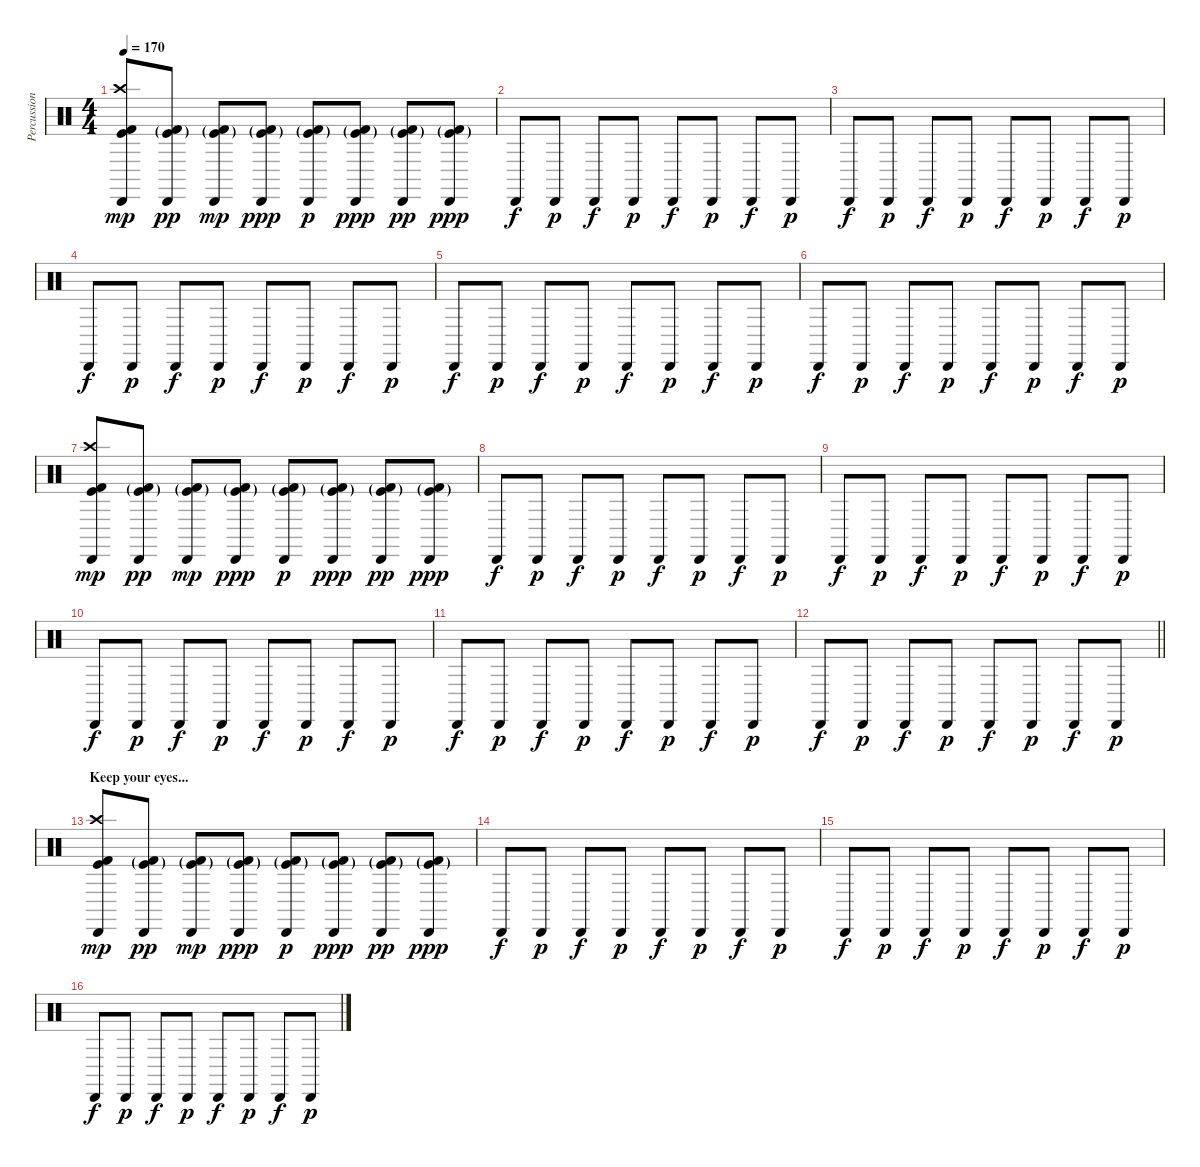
\track ("Percussion" "Percussion") {instrument percussion}
\staff {score}
\articulation defaults
\ts (4 4)
\tempo 170
\clef neutral
\ks c
("Cabasa (hit)" "Kick (hit)" "Kick (hit) 2" "Crash high (hit)").8{dy mp} ("Cabasa (hit)" "Kick (hit)"{g} "Kick (hit) 2"{g}).8{dy pp} ("Cabasa (hit)" "Kick (hit)"{g} "Kick (hit) 2"{g}).8{dy mp} ("Cabasa (hit)" "Kick (hit)"{g} "Kick (hit) 2"{g}).8{dy ppp} ("Cabasa (hit)" "Kick (hit)"{g} "Kick (hit) 2"{g}).8{dy p} ("Cabasa (hit)" "Kick (hit)"{g} "Kick (hit) 2"{g}).8{dy ppp} ("Cabasa (hit)" "Kick (hit)"{g} "Kick (hit) 2"{g}).8{dy pp} ("Cabasa (hit)" "Kick (hit)"{g} "Kick (hit) 2"{g}).8{dy ppp} |
"Cabasa (hit)".8{dy f} "Cabasa (hit)".8{dy p} "Cabasa (hit)".8{dy f} "Cabasa (hit)".8{dy p} "Cabasa (hit)".8{dy f} "Cabasa (hit)".8{dy p} "Cabasa (hit)".8{dy f} "Cabasa (hit)".8{dy p} |
"Cabasa (hit)".8{dy f} "Cabasa (hit)".8{dy p} "Cabasa (hit)".8{dy f} "Cabasa (hit)".8{dy p} "Cabasa (hit)".8{dy f} "Cabasa (hit)".8{dy p} "Cabasa (hit)".8{dy f} "Cabasa (hit)".8{dy p} |
"Cabasa (hit)".8{dy f} "Cabasa (hit)".8{dy p} "Cabasa (hit)".8{dy f} "Cabasa (hit)".8{dy p} "Cabasa (hit)".8{dy f} "Cabasa (hit)".8{dy p} "Cabasa (hit)".8{dy f} "Cabasa (hit)".8{dy p} |
"Cabasa (hit)".8{dy f} "Cabasa (hit)".8{dy p} "Cabasa (hit)".8{dy f} "Cabasa (hit)".8{dy p} "Cabasa (hit)".8{dy f} "Cabasa (hit)".8{dy p} "Cabasa (hit)".8{dy f} "Cabasa (hit)".8{dy p} |
"Cabasa (hit)".8{dy f} "Cabasa (hit)".8{dy p} "Cabasa (hit)".8{dy f} "Cabasa (hit)".8{dy p} "Cabasa (hit)".8{dy f} "Cabasa (hit)".8{dy p} "Cabasa (hit)".8{dy f} "Cabasa (hit)".8{dy p} |
("Cabasa (hit)" "Kick (hit)" "Kick (hit) 2" "Crash high (hit)").8{dy mp} ("Cabasa (hit)" "Kick (hit)"{g} "Kick (hit) 2"{g}).8{dy pp} ("Cabasa (hit)" "Kick (hit)"{g} "Kick (hit) 2"{g}).8{dy mp} ("Cabasa (hit)" "Kick (hit)"{g} "Kick (hit) 2"{g}).8{dy ppp} ("Cabasa (hit)" "Kick (hit)"{g} "Kick (hit) 2"{g}).8{dy p} ("Cabasa (hit)" "Kick (hit)"{g} "Kick (hit) 2"{g}).8{dy ppp} ("Cabasa (hit)" "Kick (hit)"{g} "Kick (hit) 2"{g}).8{dy pp} ("Cabasa (hit)" "Kick (hit)"{g} "Kick (hit) 2"{g}).8{dy ppp} |
"Cabasa (hit)".8{dy f} "Cabasa (hit)".8{dy p} "Cabasa (hit)".8{dy f} "Cabasa (hit)".8{dy p} "Cabasa (hit)".8{dy f} "Cabasa (hit)".8{dy p} "Cabasa (hit)".8{dy f} "Cabasa (hit)".8{dy p} |
"Cabasa (hit)".8{dy f} "Cabasa (hit)".8{dy p} "Cabasa (hit)".8{dy f} "Cabasa (hit)".8{dy p} "Cabasa (hit)".8{dy f} "Cabasa (hit)".8{dy p} "Cabasa (hit)".8{dy f} "Cabasa (hit)".8{dy p} |
"Cabasa (hit)".8{dy f} "Cabasa (hit)".8{dy p} "Cabasa (hit)".8{dy f} "Cabasa (hit)".8{dy p} "Cabasa (hit)".8{dy f} "Cabasa (hit)".8{dy p} "Cabasa (hit)".8{dy f} "Cabasa (hit)".8{dy p} |
"Cabasa (hit)".8{dy f} "Cabasa (hit)".8{dy p} "Cabasa (hit)".8{dy f} "Cabasa (hit)".8{dy p} "Cabasa (hit)".8{dy f} "Cabasa (hit)".8{dy p} "Cabasa (hit)".8{dy f} "Cabasa (hit)".8{dy p} |
\barLineRight lightlight "Cabasa (hit)".8{dy f} "Cabasa (hit)".8{dy p} "Cabasa (hit)".8{dy f} "Cabasa (hit)".8{dy p} "Cabasa (hit)".8{dy f} "Cabasa (hit)".8{dy p} "Cabasa (hit)".8{dy f} "Cabasa (hit)".8{dy p}
|
\section ("" "Keep your eyes...")
("Cabasa (hit)" "Kick (hit)" "Kick (hit) 2" "Crash high (hit)").8{dy mp} ("Cabasa (hit)" "Kick (hit)"{g} "Kick (hit) 2"{g}).8{dy pp} ("Cabasa (hit)" "Kick (hit)"{g} "Kick (hit) 2"{g}).8{dy mp} ("Cabasa (hit)" "Kick (hit)"{g} "Kick (hit) 2"{g}).8{dy ppp} ("Cabasa (hit)" "Kick (hit)"{g} "Kick (hit) 2"{g}).8{dy p} ("Cabasa (hit)" "Kick (hit)"{g} "Kick (hit) 2"{g}).8{dy ppp} ("Cabasa (hit)" "Kick (hit)"{g} "Kick (hit) 2"{g}).8{dy pp} ("Cabasa (hit)" "Kick (hit)"{g} "Kick (hit) 2"{g}).8{dy ppp} |
"Cabasa (hit)".8{dy f} "Cabasa (hit)".8{dy p} "Cabasa (hit)".8{dy f} "Cabasa (hit)".8{dy p} "Cabasa (hit)".8{dy f} "Cabasa (hit)".8{dy p} "Cabasa (hit)".8{dy f} "Cabasa (hit)".8{dy p} |
"Cabasa (hit)".8{dy f} "Cabasa (hit)".8{dy p} "Cabasa (hit)".8{dy f} "Cabasa (hit)".8{dy p} "Cabasa (hit)".8{dy f} "Cabasa (hit)".8{dy p} "Cabasa (hit)".8{dy f} "Cabasa (hit)".8{dy p} |
"Cabasa (hit)".8{dy f} "Cabasa (hit)".8{dy p} "Cabasa (hit)".8{dy f} "Cabasa (hit)".8{dy p} "Cabasa (hit)".8{dy f} "Cabasa (hit)".8{dy p} "Cabasa (hit)".8{dy f} "Cabasa (hit)".8{dy p}
